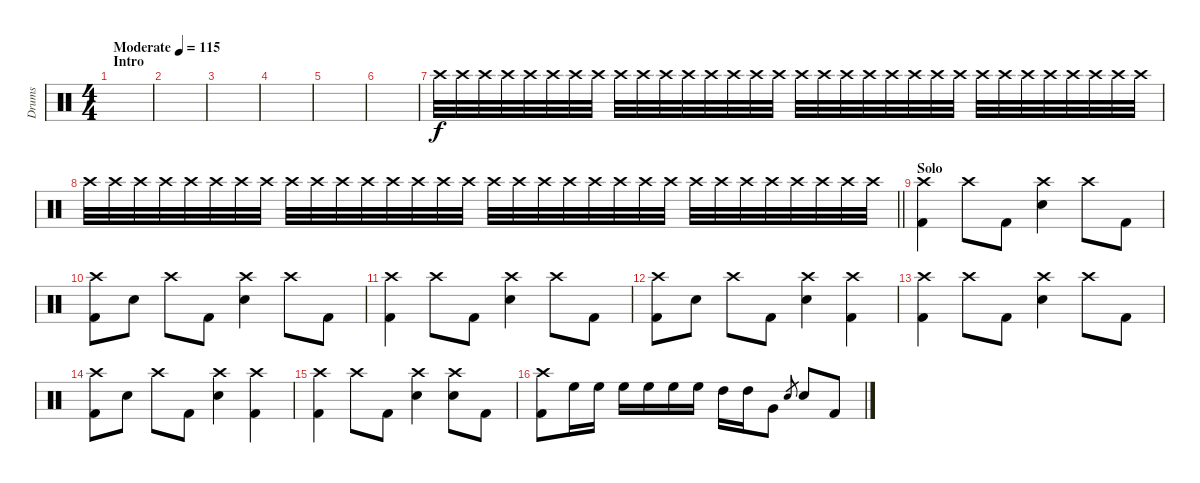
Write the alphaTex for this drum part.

\track ("Drums" "Drums") {instrument percussion}
\staff {score}
\articulation defaults
\ts (4 4)
\section ("" "Intro")
\tempo (115 "Moderate")
\clef neutral
\ks c
|
|
|
|
|
|
"Crash high (hit)".32{volume 4} "Crash high (hit)".32{volume 13} "Crash high (hit)".32 "Crash high (hit)".32 "Crash high (hit)".32 "Crash high (hit)".32 "Crash high (hit)".32 "Crash high (hit)".32 "Crash high (hit)".32 "Crash high (hit)".32 "Crash high (hit)".32 "Crash high (hit)".32 "Crash high (hit)".32 "Crash high (hit)".32 "Crash high (hit)".32 "Crash high (hit)".32 "Crash high (hit)".32 "Crash high (hit)".32 "Crash high (hit)".32 "Crash high (hit)".32 "Crash high (hit)".32 "Crash high (hit)".32 "Crash high (hit)".32 "Crash high (hit)".32 "Crash high (hit)".32 "Crash high (hit)".32 "Crash high (hit)".32 "Crash high (hit)".32 "Crash high (hit)".32 "Crash high (hit)".32 "Crash high (hit)".32 "Crash high (hit)".32 |
\barLineRight lightlight "Crash high (hit)".32 "Crash high (hit)".32 "Crash high (hit)".32 "Crash high (hit)".32 "Crash high (hit)".32 "Crash high (hit)".32 "Crash high (hit)".32 "Crash high (hit)".32 "Crash high (hit)".32 "Crash high (hit)".32 "Crash high (hit)".32 "Crash high (hit)".32 "Crash high (hit)".32 "Crash high (hit)".32 "Crash high (hit)".32 "Crash high (hit)".32 "Crash high (hit)".32 "Crash high (hit)".32 "Crash high (hit)".32 "Crash high (hit)".32 "Crash high (hit)".32 "Crash high (hit)".32 "Crash high (hit)".32 "Crash high (hit)".32 "Crash high (hit)".32 "Crash high (hit)".32 "Crash high (hit)".32 "Crash high (hit)".32 "Crash high (hit)".32 "Crash high (hit)".32 "Crash high (hit)".32 "Crash high (hit)".32
|
\section ("" "Solo")
("Crash high (hit)" "Kick (hit) 2").4 "Crash high (hit)".8 "Kick (hit) 2".8 ("Crash high (hit)" "Snare (hit) 2").4 "Crash high (hit)".8 "Kick (hit) 2".8 |
("Crash high (hit)" "Kick (hit) 2").8 "Snare (hit) 2".8 "Crash high (hit)".8 "Kick (hit) 2".8 ("Crash high (hit)" "Snare (hit) 2").4 "Crash high (hit)".8 "Kick (hit) 2".8 |
("Crash high (hit)" "Kick (hit) 2").4 "Crash high (hit)".8 "Kick (hit) 2".8 ("Crash high (hit)" "Snare (hit) 2").4 "Crash high (hit)".8 "Kick (hit) 2".8 |
("Crash high (hit)" "Kick (hit) 2").8 "Snare (hit) 2".8 "Crash high (hit)".8 "Kick (hit) 2".8 ("Crash high (hit)" "Snare (hit) 2").4 ("Crash high (hit)" "Kick (hit) 2").4 |
("Crash high (hit)" "Kick (hit) 2").4 "Crash high (hit)".8 "Kick (hit) 2".8 ("Crash high (hit)" "Snare (hit) 2").4 "Crash high (hit)".8 "Kick (hit) 2".8 |
("Crash high (hit)" "Kick (hit) 2").8 "Snare (hit) 2".8 "Crash high (hit)".8 "Kick (hit) 2".8 ("Crash high (hit)" "Snare (hit) 2").4 ("Crash high (hit)" "Kick (hit) 2").4 |
("Crash high (hit)" "Kick (hit) 2").4 "Crash high (hit)".8 "Kick (hit) 2".8 ("Crash high (hit)" "Snare (hit) 2").4 ("Crash high (hit)" "Snare (hit) 2").8 "Kick (hit) 2".8 |
("Crash high (hit)" "Kick (hit) 2").8 "High Floor Tom (hit)".16 "High Floor Tom (hit)".16 "High Floor Tom (hit)".16 "High Floor Tom (hit)".16 "High Floor Tom (hit)".16 "High Floor Tom (hit)".16 "High Tom (hit)".16 "High Tom (hit)".16 "Very Low Tom (hit)".8 "Snare (hit) 2".8{gr} "Snare (hit) 2".8 "Kick (hit) 2".8
